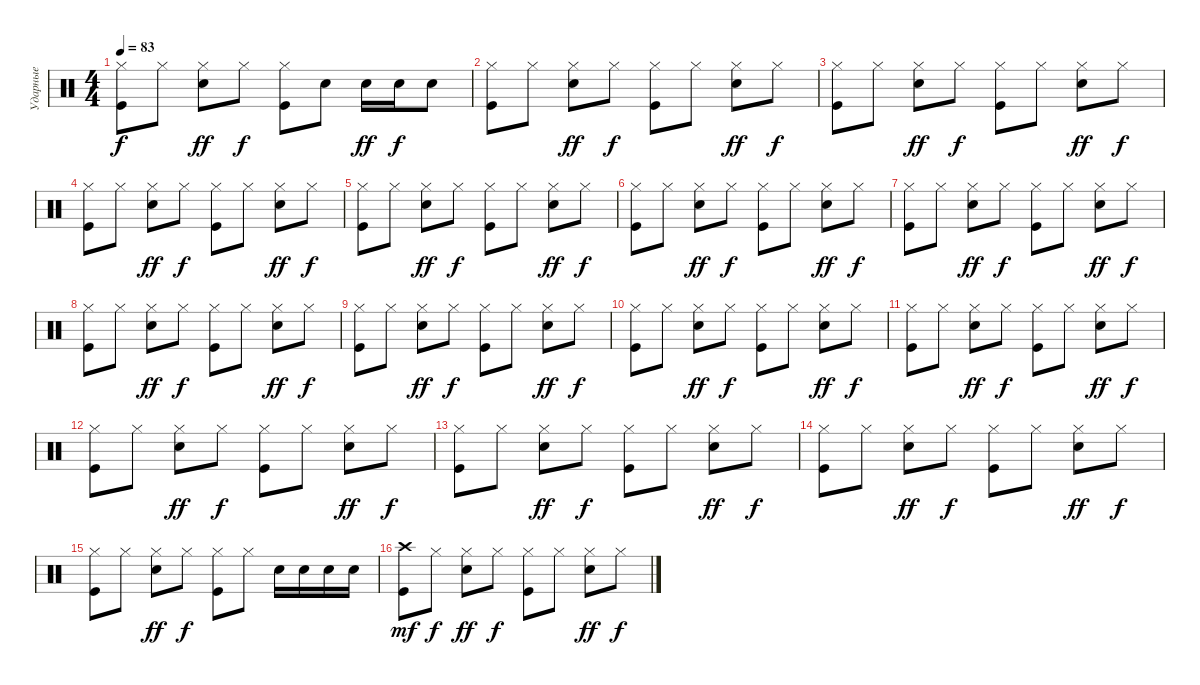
\track ("Ударные" "Ударные") {instrument percussion}
\staff {score}
\articulation defaults
\ts (4 4)
\tempo 83
\clef neutral
\ks c
("Hi-Hat (closed)" "Kick (hit)").8{dy f} "Hi-Hat (closed)".8 ("Hi-Hat (closed)" "Electric Snare (hit)").8{dy ff} "Hi-Hat (closed)".8{dy f} ("Hi-Hat (closed)" "Kick (hit)").8 "Electric Snare (hit)".8 "Electric Snare (hit)".16{dy ff} "Electric Snare (hit)".16{dy f} "Electric Snare (hit)".8 |
("Hi-Hat (closed)" "Kick (hit)").8 "Hi-Hat (closed)".8 ("Hi-Hat (closed)" "Electric Snare (hit)").8{dy ff} "Hi-Hat (closed)".8{dy f} ("Hi-Hat (closed)" "Kick (hit)").8 "Hi-Hat (closed)".8 ("Hi-Hat (closed)" "Electric Snare (hit)").8{dy ff} "Hi-Hat (closed)".8{dy f} |
("Hi-Hat (closed)" "Kick (hit)").8 "Hi-Hat (closed)".8 ("Hi-Hat (closed)" "Electric Snare (hit)").8{dy ff} "Hi-Hat (closed)".8{dy f} ("Hi-Hat (closed)" "Kick (hit)").8 "Hi-Hat (closed)".8 ("Hi-Hat (closed)" "Electric Snare (hit)").8{dy ff} "Hi-Hat (closed)".8{dy f} |
("Hi-Hat (closed)" "Kick (hit)").8 "Hi-Hat (closed)".8 ("Hi-Hat (closed)" "Electric Snare (hit)").8{dy ff} "Hi-Hat (closed)".8{dy f} ("Hi-Hat (closed)" "Kick (hit)").8 "Hi-Hat (closed)".8 ("Hi-Hat (closed)" "Electric Snare (hit)").8{dy ff} "Hi-Hat (closed)".8{dy f} |
("Hi-Hat (closed)" "Kick (hit)").8 "Hi-Hat (closed)".8 ("Hi-Hat (closed)" "Electric Snare (hit)").8{dy ff} "Hi-Hat (closed)".8{dy f} ("Hi-Hat (closed)" "Kick (hit)").8 "Hi-Hat (closed)".8 ("Hi-Hat (closed)" "Electric Snare (hit)").8{dy ff} "Hi-Hat (closed)".8{dy f} |
("Hi-Hat (closed)" "Kick (hit)").8 "Hi-Hat (closed)".8 ("Hi-Hat (closed)" "Electric Snare (hit)").8{dy ff} "Hi-Hat (closed)".8{dy f} ("Hi-Hat (closed)" "Kick (hit)").8 "Hi-Hat (closed)".8 ("Hi-Hat (closed)" "Electric Snare (hit)").8{dy ff} "Hi-Hat (closed)".8{dy f} |
("Hi-Hat (closed)" "Kick (hit)").8 "Hi-Hat (closed)".8 ("Hi-Hat (closed)" "Electric Snare (hit)").8{dy ff} "Hi-Hat (closed)".8{dy f} ("Hi-Hat (closed)" "Kick (hit)").8 "Hi-Hat (closed)".8 ("Hi-Hat (closed)" "Electric Snare (hit)").8{dy ff} "Hi-Hat (closed)".8{dy f} |
("Hi-Hat (closed)" "Kick (hit)").8 "Hi-Hat (closed)".8 ("Hi-Hat (closed)" "Electric Snare (hit)").8{dy ff} "Hi-Hat (closed)".8{dy f} ("Hi-Hat (closed)" "Kick (hit)").8 "Hi-Hat (closed)".8 ("Hi-Hat (closed)" "Electric Snare (hit)").8{dy ff} "Hi-Hat (closed)".8{dy f} |
("Hi-Hat (closed)" "Kick (hit)").8 "Hi-Hat (closed)".8 ("Hi-Hat (closed)" "Electric Snare (hit)").8{dy ff} "Hi-Hat (closed)".8{dy f} ("Hi-Hat (closed)" "Kick (hit)").8 "Hi-Hat (closed)".8 ("Hi-Hat (closed)" "Electric Snare (hit)").8{dy ff} "Hi-Hat (closed)".8{dy f} |
("Hi-Hat (closed)" "Kick (hit)").8 "Hi-Hat (closed)".8 ("Hi-Hat (closed)" "Electric Snare (hit)").8{dy ff} "Hi-Hat (closed)".8{dy f} ("Hi-Hat (closed)" "Kick (hit)").8 "Hi-Hat (closed)".8 ("Hi-Hat (closed)" "Electric Snare (hit)").8{dy ff} "Hi-Hat (closed)".8{dy f} |
("Hi-Hat (closed)" "Kick (hit)").8 "Hi-Hat (closed)".8 ("Hi-Hat (closed)" "Electric Snare (hit)").8{dy ff} "Hi-Hat (closed)".8{dy f} ("Hi-Hat (closed)" "Kick (hit)").8 "Hi-Hat (closed)".8 ("Hi-Hat (closed)" "Electric Snare (hit)").8{dy ff} "Hi-Hat (closed)".8{dy f} |
("Hi-Hat (closed)" "Kick (hit)").8 "Hi-Hat (closed)".8 ("Hi-Hat (closed)" "Electric Snare (hit)").8{dy ff} "Hi-Hat (closed)".8{dy f} ("Hi-Hat (closed)" "Kick (hit)").8 "Hi-Hat (closed)".8 ("Hi-Hat (closed)" "Electric Snare (hit)").8{dy ff} "Hi-Hat (closed)".8{dy f} |
("Hi-Hat (closed)" "Kick (hit)").8 "Hi-Hat (closed)".8 ("Hi-Hat (closed)" "Electric Snare (hit)").8{dy ff} "Hi-Hat (closed)".8{dy f} ("Hi-Hat (closed)" "Kick (hit)").8 "Hi-Hat (closed)".8 ("Hi-Hat (closed)" "Electric Snare (hit)").8{dy ff} "Hi-Hat (closed)".8{dy f} |
("Hi-Hat (closed)" "Kick (hit)").8 "Hi-Hat (closed)".8 ("Hi-Hat (closed)" "Electric Snare (hit)").8{dy ff} "Hi-Hat (closed)".8{dy f} ("Hi-Hat (closed)" "Kick (hit)").8 "Hi-Hat (closed)".8 ("Hi-Hat (closed)" "Electric Snare (hit)").8{dy ff} "Hi-Hat (closed)".8{dy f} |
("Hi-Hat (closed)" "Kick (hit)").8 "Hi-Hat (closed)".8 ("Hi-Hat (closed)" "Electric Snare (hit)").8{dy ff} "Hi-Hat (closed)".8{dy f} ("Hi-Hat (closed)" "Kick (hit)").8 "Hi-Hat (closed)".8 "Electric Snare (hit)".16 "Electric Snare (hit)".16 "Electric Snare (hit)".16 "Electric Snare (hit)".16 |
("Crash high (hit)" "Kick (hit)").8{dy mf} "Hi-Hat (closed)".8{dy f} ("Hi-Hat (closed)" "Electric Snare (hit)").8{dy ff} "Hi-Hat (closed)".8{dy f} ("Hi-Hat (closed)" "Kick (hit)").8 "Hi-Hat (closed)".8 ("Hi-Hat (closed)" "Electric Snare (hit)").8{dy ff} "Hi-Hat (closed)".8{dy f}
